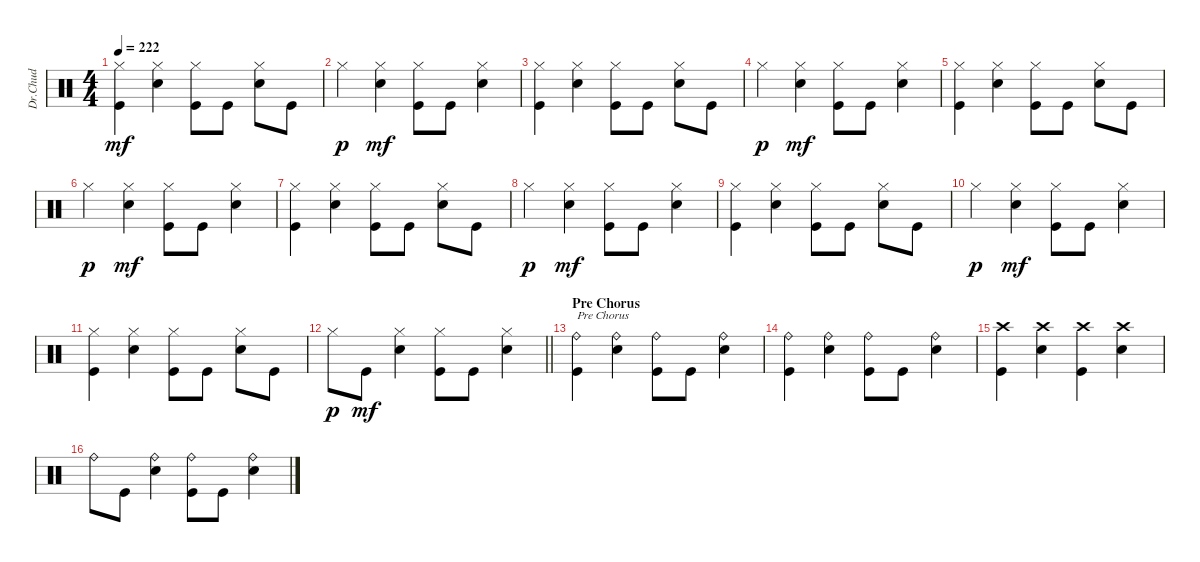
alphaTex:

\track ("Dr.Chud" "Dr.Chud") {instrument percussion}
\staff {score}
\articulation defaults
\ts (4 4)
\tempo 222
\clef neutral
\ks c
("Hi-Hat (closed)" "Kick (hit)").4{dy mf} ("Hi-Hat (closed)" "Electric Snare (hit)").4 ("Hi-Hat (closed)" "Kick (hit)").8 "Kick (hit)".8 ("Hi-Hat (closed)" "Electric Snare (hit)").8 "Kick (hit)".8 |
"Hi-Hat (closed)".4{dy p} ("Hi-Hat (closed)" "Electric Snare (hit)").4{dy mf} ("Hi-Hat (closed)" "Kick (hit)").8 "Kick (hit)".8 ("Hi-Hat (closed)" "Electric Snare (hit)").4 |
("Hi-Hat (closed)" "Kick (hit)").4 ("Hi-Hat (closed)" "Electric Snare (hit)").4 ("Hi-Hat (closed)" "Kick (hit)").8 "Kick (hit)".8 ("Hi-Hat (closed)" "Electric Snare (hit)").8 "Kick (hit)".8 |
"Hi-Hat (closed)".4{dy p} ("Hi-Hat (closed)" "Electric Snare (hit)").4{dy mf} ("Hi-Hat (closed)" "Kick (hit)").8 "Kick (hit)".8 ("Hi-Hat (closed)" "Electric Snare (hit)").4 |
("Hi-Hat (closed)" "Kick (hit)").4 ("Hi-Hat (closed)" "Electric Snare (hit)").4 ("Hi-Hat (closed)" "Kick (hit)").8 "Kick (hit)".8 ("Hi-Hat (closed)" "Electric Snare (hit)").8 "Kick (hit)".8 |
"Hi-Hat (closed)".4{dy p} ("Hi-Hat (closed)" "Electric Snare (hit)").4{dy mf} ("Hi-Hat (closed)" "Kick (hit)").8 "Kick (hit)".8 ("Hi-Hat (closed)" "Electric Snare (hit)").4 |
("Hi-Hat (closed)" "Kick (hit)").4 ("Hi-Hat (closed)" "Electric Snare (hit)").4 ("Hi-Hat (closed)" "Kick (hit)").8 "Kick (hit)".8 ("Hi-Hat (closed)" "Electric Snare (hit)").8 "Kick (hit)".8 |
"Hi-Hat (closed)".4{dy p} ("Hi-Hat (closed)" "Electric Snare (hit)").4{dy mf} ("Hi-Hat (closed)" "Kick (hit)").8 "Kick (hit)".8 ("Hi-Hat (closed)" "Electric Snare (hit)").4 |
("Hi-Hat (closed)" "Kick (hit)").4 ("Hi-Hat (closed)" "Electric Snare (hit)").4 ("Hi-Hat (closed)" "Kick (hit)").8 "Kick (hit)".8 ("Hi-Hat (closed)" "Electric Snare (hit)").8 "Kick (hit)".8 |
"Hi-Hat (closed)".4{dy p} ("Hi-Hat (closed)" "Electric Snare (hit)").4{dy mf} ("Hi-Hat (closed)" "Kick (hit)").8 "Kick (hit)".8 ("Hi-Hat (closed)" "Electric Snare (hit)").4 |
("Hi-Hat (closed)" "Kick (hit)").4 ("Hi-Hat (closed)" "Electric Snare (hit)").4 ("Hi-Hat (closed)" "Kick (hit)").8 "Kick (hit)".8 ("Hi-Hat (closed)" "Electric Snare (hit)").8 "Kick (hit)".8 |
\barLineRight lightlight "Hi-Hat (closed)".8{dy p} "Kick (hit)".8{dy mf}
("Hi-Hat (closed)" "Electric Snare (hit)").4 ("Hi-Hat (closed)" "Kick (hit)").8 "Kick (hit)".8 ("Hi-Hat (closed)" "Electric Snare (hit)").4 |
\section ("" "Pre Chorus")
("Ride (bell)" "Kick (hit)").4{txt "Pre Chorus"} ("Ride (bell)" "Electric Snare (hit)").4 ("Ride (bell)" "Kick (hit)").8 "Kick (hit)".8 ("Ride (bell)" "Electric Snare (hit)").4 |
("Ride (bell)" "Kick (hit)").4 ("Ride (bell)" "Electric Snare (hit)").4 ("Ride (bell)" "Kick (hit)").8 "Kick (hit)".8 ("Ride (bell)" "Electric Snare (hit)").4 |
("Crash high (hit)" "Kick (hit)").4 ("Crash high (hit)" "Electric Snare (hit)").4 ("Crash high (hit)" "Kick (hit)").4 ("Crash high (hit)" "Electric Snare (hit)").4 |
"Ride (bell)".8 "Kick (hit)".8 ("Ride (bell)" "Electric Snare (hit)").4 ("Ride (bell)" "Kick (hit)").8 "Kick (hit)".8 ("Ride (bell)" "Electric Snare (hit)").4
